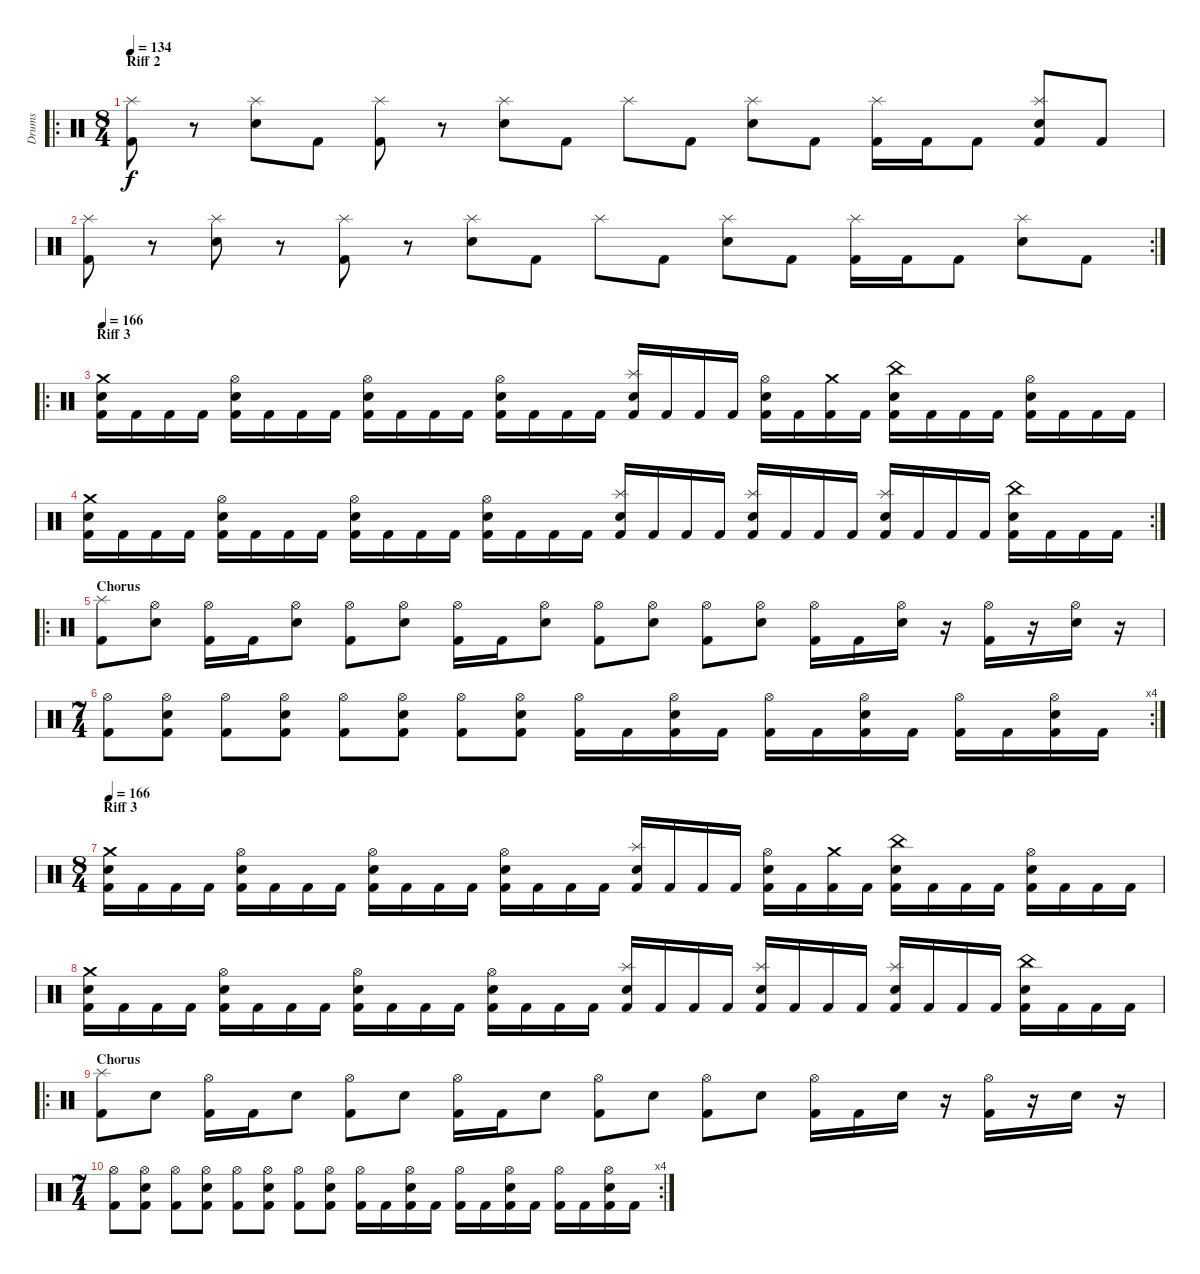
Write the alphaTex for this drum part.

\track ("Drums" "Drums") {instrument percussion}
\staff {score}
\articulation defaults
\ro
\ts (8 4)
\section ("" "Riff 2")
\tempo 134
\clef neutral
\ks c
("Kick (hit) 2" "Splash (hit)").8{dy f} r.8 ("Snare (hit) 2" "Splash (hit)").8 "Kick (hit) 2".8 ("Kick (hit) 2" "Splash (hit)").8 r.8 ("Snare (hit) 2" "Splash (hit)").8 "Kick (hit) 2".8 "Splash (hit)".8 "Kick (hit) 2".8 ("Snare (hit) 2" "Splash (hit)").8 "Kick (hit) 2".8 ("Kick (hit) 2" "Splash (hit)").16 "Kick (hit) 2".16 "Kick (hit) 2".8 ("Kick (hit) 2" "Snare (hit) 2" "Splash (hit)").8 "Kick (hit) 2".8 |
\rc 2
("Kick (hit) 2" "Splash (hit)").8 r.8 ("Snare (hit) 2" "Splash (hit)").8 r.8 ("Kick (hit) 2" "Splash (hit)").8 r.8 ("Snare (hit) 2" "Splash (hit)").8 "Kick (hit) 2".8 "Splash (hit)".8 "Kick (hit) 2".8 ("Snare (hit) 2" "Splash (hit)").8 "Kick (hit) 2".8 ("Kick (hit) 2" "Splash (hit)").16 "Kick (hit) 2".16 "Kick (hit) 2".8 ("Snare (hit) 2" "Splash (hit)").8 "Kick (hit) 2".8 |
\ro
\section ("" "Riff 3")
\tempo 166
("Kick (hit) 2" "Snare (hit) 2" "Crash medium (hit)").16 "Kick (hit) 2".16 "Kick (hit) 2".16 "Kick (hit) 2".16 ("Kick (hit) 2" "Snare (hit) 2" "Hi-Hat (open)").16 "Kick (hit) 2".16 "Kick (hit) 2".16 "Kick (hit) 2".16 ("Kick (hit) 2" "Snare (hit) 2" "Hi-Hat (open)").16 "Kick (hit) 2".16 "Kick (hit) 2".16 "Kick (hit) 2".16 ("Kick (hit) 2" "Snare (hit) 2" "Hi-Hat (open)").16 "Kick (hit) 2".16 "Kick (hit) 2".16 "Kick (hit) 2".16 ("Kick (hit) 2" "Snare (hit) 2" "Splash (hit)").16 "Kick (hit) 2".16 "Kick (hit) 2".16 "Kick (hit) 2".16 ("Kick (hit) 2" "Snare (hit) 2" "Hi-Hat (open)").16 "Kick (hit) 2".16 ("Kick (hit) 2" "Crash medium (hit)").16 "Kick (hit) 2".16 ("Kick (hit) 2" "Snare (hit) 2" "China (hit)").16 "Kick (hit) 2".16 "Kick (hit) 2".16 "Kick (hit) 2".16 ("Kick (hit) 2" "Snare (hit) 2" "Hi-Hat (open)").16 "Kick (hit) 2".16 "Kick (hit) 2".16 "Kick (hit) 2".16 |
\rc 2
("Kick (hit) 2" "Snare (hit) 2" "Crash medium (hit)").16 "Kick (hit) 2".16 "Kick (hit) 2".16 "Kick (hit) 2".16 ("Kick (hit) 2" "Snare (hit) 2" "Hi-Hat (open)").16 "Kick (hit) 2".16 "Kick (hit) 2".16 "Kick (hit) 2".16 ("Kick (hit) 2" "Snare (hit) 2" "Hi-Hat (open)").16 "Kick (hit) 2".16 "Kick (hit) 2".16 "Kick (hit) 2".16 ("Kick (hit) 2" "Snare (hit) 2" "Hi-Hat (open)").16 "Kick (hit) 2".16 "Kick (hit) 2".16 "Kick (hit) 2".16 ("Kick (hit) 2" "Snare (hit) 2" "Splash (hit)").16 "Kick (hit) 2".16 "Kick (hit) 2".16 "Kick (hit) 2".16 ("Kick (hit) 2" "Snare (hit) 2" "Splash (hit)").16 "Kick (hit) 2".16 "Kick (hit) 2".16 "Kick (hit) 2".16 ("Kick (hit) 2" "Snare (hit) 2" "Splash (hit)").16 "Kick (hit) 2".16 "Kick (hit) 2".16 "Kick (hit) 2".16 ("Kick (hit) 2" "Snare (hit) 2" "China (hit)").16 "Kick (hit) 2".16 "Kick (hit) 2".16 "Kick (hit) 2".16 |
\ro
\section ("" "Chorus")
("Kick (hit) 2" "Splash (hit)").8 ("Snare (hit) 2" "Hi-Hat (open)").8 ("Kick (hit) 2" "Hi-Hat (open)").16 "Kick (hit) 2".16 ("Snare (hit) 2" "Hi-Hat (open)").8 ("Kick (hit) 2" "Hi-Hat (open)").8 ("Snare (hit) 2" "Hi-Hat (open)").8 ("Kick (hit) 2" "Hi-Hat (open)").16 "Kick (hit) 2".16 ("Snare (hit) 2" "Hi-Hat (open)").8 ("Kick (hit) 2" "Hi-Hat (open)").8 ("Snare (hit) 2" "Hi-Hat (open)").8 ("Kick (hit) 2" "Hi-Hat (open)").8 ("Snare (hit) 2" "Hi-Hat (open)").8 ("Kick (hit) 2" "Hi-Hat (open)").16 "Kick (hit) 2".16 ("Snare (hit) 2" "Hi-Hat (open)").16 r.16 ("Kick (hit) 2" "Hi-Hat (open)").16 r.16 ("Snare (hit) 2" "Hi-Hat (open)").16 r.16 |
\rc 4
\ts (7 4)
("Kick (hit) 2" "Hi-Hat (open)").8 ("Kick (hit) 2" "Snare (hit) 2" "Hi-Hat (open)").8 ("Kick (hit) 2" "Hi-Hat (open)").8 ("Kick (hit) 2" "Snare (hit) 2" "Hi-Hat (open)").8 ("Kick (hit) 2" "Hi-Hat (open)").8 ("Kick (hit) 2" "Snare (hit) 2" "Hi-Hat (open)").8 ("Kick (hit) 2" "Hi-Hat (open)").8 ("Kick (hit) 2" "Snare (hit) 2" "Hi-Hat (open)").8 ("Kick (hit) 2" "Hi-Hat (open)").16 "Kick (hit) 2".16 ("Kick (hit) 2" "Snare (hit) 2" "Hi-Hat (open)").16 "Kick (hit) 2".16 ("Kick (hit) 2" "Hi-Hat (open)").16 "Kick (hit) 2".16 ("Kick (hit) 2" "Snare (hit) 2" "Hi-Hat (open)").16 "Kick (hit) 2".16 ("Kick (hit) 2" "Hi-Hat (open)").16 "Kick (hit) 2".16 ("Kick (hit) 2" "Snare (hit) 2" "Hi-Hat (open)").16 "Kick (hit) 2".16 |
\ts (8 4)
\section ("" "Riff 3")
\tempo 166
("Kick (hit) 2" "Snare (hit) 2" "Crash medium (hit)").16 "Kick (hit) 2".16 "Kick (hit) 2".16 "Kick (hit) 2".16 ("Kick (hit) 2" "Snare (hit) 2" "Hi-Hat (open)").16 "Kick (hit) 2".16 "Kick (hit) 2".16 "Kick (hit) 2".16 ("Kick (hit) 2" "Snare (hit) 2" "Hi-Hat (open)").16 "Kick (hit) 2".16 "Kick (hit) 2".16 "Kick (hit) 2".16 ("Kick (hit) 2" "Snare (hit) 2" "Hi-Hat (open)").16 "Kick (hit) 2".16 "Kick (hit) 2".16 "Kick (hit) 2".16 ("Kick (hit) 2" "Snare (hit) 2" "Splash (hit)").16 "Kick (hit) 2".16 "Kick (hit) 2".16 "Kick (hit) 2".16 ("Kick (hit) 2" "Snare (hit) 2" "Hi-Hat (open)").16 "Kick (hit) 2".16 ("Kick (hit) 2" "Crash medium (hit)").16 "Kick (hit) 2".16 ("Kick (hit) 2" "Snare (hit) 2" "China (hit)").16 "Kick (hit) 2".16 "Kick (hit) 2".16 "Kick (hit) 2".16 ("Kick (hit) 2" "Snare (hit) 2" "Hi-Hat (open)").16 "Kick (hit) 2".16 "Kick (hit) 2".16 "Kick (hit) 2".16 |
("Kick (hit) 2" "Snare (hit) 2" "Crash medium (hit)").16 "Kick (hit) 2".16 "Kick (hit) 2".16 "Kick (hit) 2".16 ("Kick (hit) 2" "Snare (hit) 2" "Hi-Hat (open)").16 "Kick (hit) 2".16 "Kick (hit) 2".16 "Kick (hit) 2".16 ("Kick (hit) 2" "Snare (hit) 2" "Hi-Hat (open)").16 "Kick (hit) 2".16 "Kick (hit) 2".16 "Kick (hit) 2".16 ("Kick (hit) 2" "Snare (hit) 2" "Hi-Hat (open)").16 "Kick (hit) 2".16 "Kick (hit) 2".16 "Kick (hit) 2".16 ("Kick (hit) 2" "Snare (hit) 2" "Splash (hit)").16 "Kick (hit) 2".16 "Kick (hit) 2".16 "Kick (hit) 2".16 ("Kick (hit) 2" "Snare (hit) 2" "Splash (hit)").16 "Kick (hit) 2".16 "Kick (hit) 2".16 "Kick (hit) 2".16 ("Kick (hit) 2" "Snare (hit) 2" "Splash (hit)").16 "Kick (hit) 2".16 "Kick (hit) 2".16 "Kick (hit) 2".16 ("Kick (hit) 2" "Snare (hit) 2" "China (hit)").16 "Kick (hit) 2".16 "Kick (hit) 2".16 "Kick (hit) 2".16 |
\ro
\section ("" "Chorus")
("Kick (hit) 2" "Splash (hit)").8 "Snare (hit) 2".8 ("Kick (hit) 2" "Hi-Hat (open)").16 "Kick (hit) 2".16 "Snare (hit) 2".8 ("Kick (hit) 2" "Hi-Hat (open)").8 "Snare (hit) 2".8 ("Kick (hit) 2" "Hi-Hat (open)").16 "Kick (hit) 2".16 "Snare (hit) 2".8 ("Kick (hit) 2" "Hi-Hat (open)").8 "Snare (hit) 2".8 ("Kick (hit) 2" "Hi-Hat (open)").8 "Snare (hit) 2".8 ("Kick (hit) 2" "Hi-Hat (open)").16 "Kick (hit) 2".16 "Snare (hit) 2".16 r.16 ("Kick (hit) 2" "Hi-Hat (open)").16 r.16 "Snare (hit) 2".16 r.16 |
\rc 4
\ts (7 4)
("Kick (hit) 2" "Hi-Hat (open)").8 ("Kick (hit) 2" "Snare (hit) 2" "Hi-Hat (open)").8 ("Kick (hit) 2" "Hi-Hat (open)").8 ("Kick (hit) 2" "Snare (hit) 2" "Hi-Hat (open)").8 ("Kick (hit) 2" "Hi-Hat (open)").8 ("Kick (hit) 2" "Snare (hit) 2" "Hi-Hat (open)").8 ("Kick (hit) 2" "Hi-Hat (open)").8 ("Kick (hit) 2" "Snare (hit) 2" "Hi-Hat (open)").8 ("Kick (hit) 2" "Hi-Hat (open)").16 "Kick (hit) 2".16 ("Kick (hit) 2" "Snare (hit) 2" "Hi-Hat (open)").16 "Kick (hit) 2".16 ("Kick (hit) 2" "Hi-Hat (open)").16 "Kick (hit) 2".16 ("Kick (hit) 2" "Snare (hit) 2" "Hi-Hat (open)").16 "Kick (hit) 2".16 ("Kick (hit) 2" "Hi-Hat (open)").16 "Kick (hit) 2".16 ("Kick (hit) 2" "Snare (hit) 2" "Hi-Hat (open)").16 "Kick (hit) 2".16
